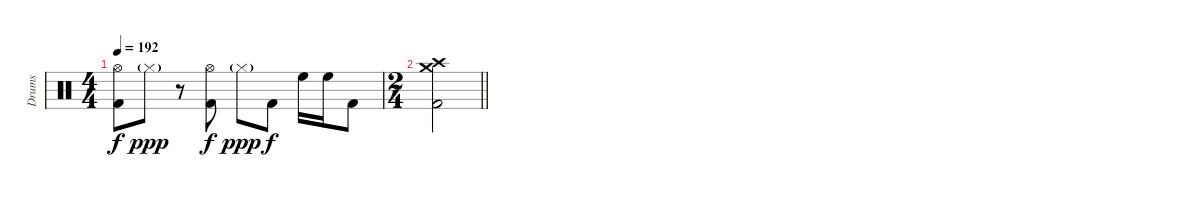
\track ("Drums" "Drums") {instrument percussion}
\staff {score}
\articulation defaults
\ts (4 4)
\tempo 192
\clef neutral
\ks c
("Hi-Hat (open)" "Kick (hit) 2").8{dy f} "Hi-Hat (closed)"{g}.8{dy ppp} r.8 ("Hi-Hat (open)" "Kick (hit) 2").8{dy f} "Hi-Hat (closed)"{g}.8{dy ppp} "Kick (hit) 2".8{dy f} "High Floor Tom (hit)".16 "High Floor Tom (hit)".16 "Kick (hit) 2".8 |
\ts (2 4)
\barLineRight lightlight
("Crash high (hit)" "Crash medium (hit)" "Kick (hit) 2").2
